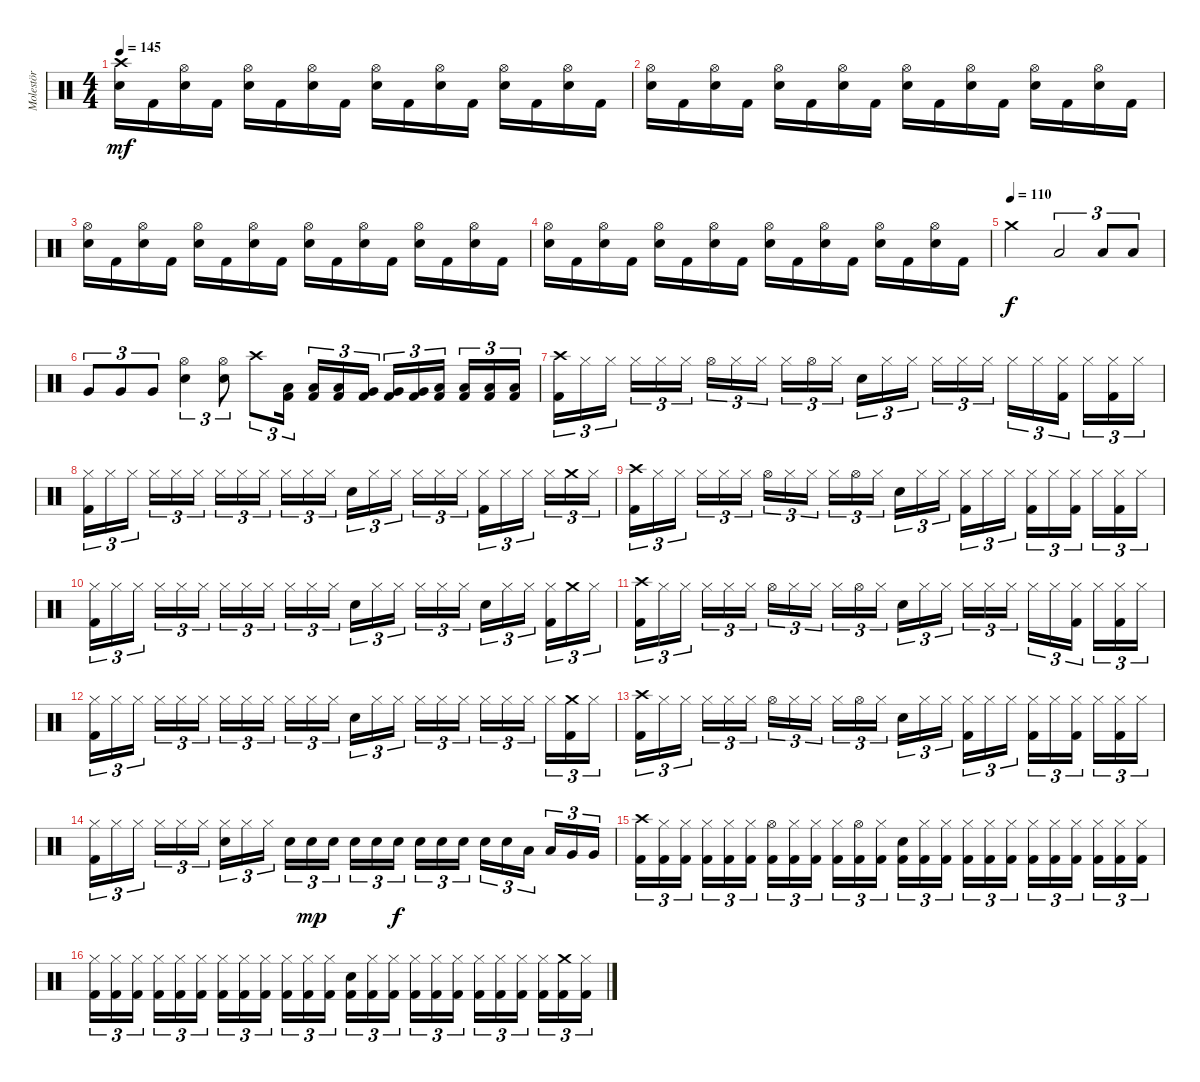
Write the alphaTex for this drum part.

\track ("Molestör" "Molestör") {instrument percussion}
\staff {score}
\articulation defaults
\ts (4 4)
\tempo 145
\clef neutral
\ks c
("Crash high (hit)" "Electric Snare (hit)").16{dy mf} "Kick (hit) 2".16 ("Hi-Hat (open)" "Electric Snare (hit)").16 "Kick (hit) 2".16 ("Hi-Hat (open)" "Electric Snare (hit)").16 "Kick (hit) 2".16 ("Hi-Hat (open)" "Electric Snare (hit)").16 "Kick (hit) 2".16 ("Hi-Hat (open)" "Electric Snare (hit)").16 "Kick (hit) 2".16 ("Hi-Hat (open)" "Electric Snare (hit)").16 "Kick (hit) 2".16 ("Hi-Hat (open)" "Electric Snare (hit)").16 "Kick (hit) 2".16 ("Hi-Hat (open)" "Electric Snare (hit)").16 "Kick (hit) 2".16 |
("Hi-Hat (open)" "Electric Snare (hit)").16 "Kick (hit) 2".16 ("Hi-Hat (open)" "Electric Snare (hit)").16 "Kick (hit) 2".16 ("Hi-Hat (open)" "Electric Snare (hit)").16 "Kick (hit) 2".16 ("Hi-Hat (open)" "Electric Snare (hit)").16 "Kick (hit) 2".16 ("Hi-Hat (open)" "Electric Snare (hit)").16 "Kick (hit) 2".16 ("Hi-Hat (open)" "Electric Snare (hit)").16 "Kick (hit) 2".16 ("Hi-Hat (open)" "Electric Snare (hit)").16 "Kick (hit) 2".16 ("Hi-Hat (open)" "Electric Snare (hit)").16 "Kick (hit) 2".16 |
("Hi-Hat (open)" "Electric Snare (hit)").16 "Kick (hit) 2".16 ("Hi-Hat (open)" "Electric Snare (hit)").16 "Kick (hit) 2".16 ("Hi-Hat (open)" "Electric Snare (hit)").16 "Kick (hit) 2".16 ("Hi-Hat (open)" "Electric Snare (hit)").16 "Kick (hit) 2".16 ("Hi-Hat (open)" "Electric Snare (hit)").16 "Kick (hit) 2".16 ("Hi-Hat (open)" "Electric Snare (hit)").16 "Kick (hit) 2".16 ("Hi-Hat (open)" "Electric Snare (hit)").16 "Kick (hit) 2".16 ("Hi-Hat (open)" "Electric Snare (hit)").16 "Kick (hit) 2".16 |
("Hi-Hat (open)" "Electric Snare (hit)").16 "Kick (hit) 2".16 ("Hi-Hat (open)" "Electric Snare (hit)").16 "Kick (hit) 2".16 ("Hi-Hat (open)" "Electric Snare (hit)").16 "Kick (hit) 2".16 ("Hi-Hat (open)" "Electric Snare (hit)").16 "Kick (hit) 2".16 ("Hi-Hat (open)" "Electric Snare (hit)").16 "Kick (hit) 2".16 ("Hi-Hat (open)" "Electric Snare (hit)").16 "Kick (hit) 2".16 ("Hi-Hat (open)" "Electric Snare (hit)").16 "Kick (hit) 2".16 ("Hi-Hat (open)" "Electric Snare (hit)").16 "Kick (hit) 2".16 |
\tempo (110)
"Crash medium (hit)".2{dy f} "Low Tom (hit)".2{tu (3 2)} "Low Tom (hit)".8{tu (3 2)} "Low Tom (hit)".8{tu (3 2)} |
"Very Low Tom (hit)".8{tu (3 2)} "Very Low Tom (hit)".8{tu (3 2)} "Very Low Tom (hit)".8{tu (3 2)} ("Hi-Hat (open)" "Electric Snare (hit)").4{tu (3 2)} ("Hi-Hat (open)" "Electric Snare (hit)").8{tu (3 2)} "Crash high (hit)".8{tu (3 2)} ("Low Tom (hit)" "Kick (hit) 2").16{tu (3 2) beam splitsecondary} ("Low Tom (hit)" "Kick (hit) 2").16{tu (3 2)} ("Low Tom (hit)" "Kick (hit) 2").16{tu (3 2)} ("Very Low Tom (hit)" "Kick (hit) 2").16{tu (3 2)} ("Very Low Tom (hit)" "Kick (hit) 2").16{tu (3 2)} ("Very Low Tom (hit)" "Kick (hit) 2").16{tu (3 2)} ("Low Floor Tom (hit)" "Kick (hit) 2").16{tu (3 2) beam splitsecondary} ("Low Floor Tom (hit)" "Kick (hit) 2").16{tu (3 2)} ("Low Floor Tom (hit)" "Kick (hit) 2").16{tu (3 2)} ("Low Floor Tom (hit)" "Kick (hit) 2").16{tu (3 2)} |
("Crash high (hit)" "Kick (hit) 2").16{tu (3 2)} "Hi-Hat (closed)".16{tu (3 2)} "Hi-Hat (closed)".16{tu (3 2) beam splitsecondary} "Hi-Hat (closed)".16{tu (3 2)} "Hi-Hat (closed)".16{tu (3 2)} "Hi-Hat (closed)".16{tu (3 2)} "Hi-Hat (open)".16{tu (3 2)} "Hi-Hat (closed)".16{tu (3 2)} "Hi-Hat (closed)".16{tu (3 2) beam splitsecondary} "Hi-Hat (closed)".16{tu (3 2)} "Hi-Hat (open)".16{tu (3 2)} "Hi-Hat (closed)".16{tu (3 2)} "Electric Snare (hit)".16{tu (3 2)} "Hi-Hat (closed)".16{tu (3 2)} "Hi-Hat (closed)".16{tu (3 2) beam splitsecondary} "Hi-Hat (closed)".16{tu (3 2)} "Hi-Hat (closed)".16{tu (3 2)} "Hi-Hat (closed)".16{tu (3 2)} "Hi-Hat (closed)".16{tu (3 2)} "Hi-Hat (closed)".16{tu (3 2)} ("Hi-Hat (closed)" "Kick (hit) 2").16{tu (3 2) beam splitsecondary} "Hi-Hat (closed)".16{tu (3 2)} ("Hi-Hat (closed)" "Kick (hit) 2").16{tu (3 2)} "Hi-Hat (closed)".16{tu (3 2)} |
("Hi-Hat (closed)" "Kick (hit) 2").16{tu (3 2)} "Hi-Hat (closed)".16{tu (3 2)} "Hi-Hat (closed)".16{tu (3 2) beam splitsecondary} "Hi-Hat (closed)".16{tu (3 2)} "Hi-Hat (closed)".16{tu (3 2)} "Hi-Hat (closed)".16{tu (3 2)} "Hi-Hat (closed)".16{tu (3 2)} "Hi-Hat (closed)".16{tu (3 2)} "Hi-Hat (closed)".16{tu (3 2) beam splitsecondary} "Hi-Hat (closed)".16{tu (3 2)} "Hi-Hat (closed)".16{tu (3 2)} "Hi-Hat (closed)".16{tu (3 2)} "Electric Snare (hit)".16{tu (3 2)} "Hi-Hat (closed)".16{tu (3 2)} "Hi-Hat (closed)".16{tu (3 2) beam splitsecondary} "Hi-Hat (closed)".16{tu (3 2)} "Hi-Hat (closed)".16{tu (3 2)} "Hi-Hat (closed)".16{tu (3 2)} ("Hi-Hat (closed)" "Kick (hit) 2").16{tu (3 2)} "Hi-Hat (closed)".16{tu (3 2)} "Hi-Hat (closed)".16{tu (3 2) beam splitsecondary} "Hi-Hat (closed)".16{tu (3 2)} "Crash medium (hit)".16{tu (3 2)} "Hi-Hat (closed)".16{tu (3 2)} |
("Crash high (hit)" "Kick (hit) 2").16{tu (3 2)} "Hi-Hat (closed)".16{tu (3 2)} "Hi-Hat (closed)".16{tu (3 2) beam splitsecondary} "Hi-Hat (closed)".16{tu (3 2)} "Hi-Hat (closed)".16{tu (3 2)} "Hi-Hat (closed)".16{tu (3 2)} "Hi-Hat (open)".16{tu (3 2)} "Hi-Hat (closed)".16{tu (3 2)} "Hi-Hat (closed)".16{tu (3 2) beam splitsecondary} "Hi-Hat (closed)".16{tu (3 2)} "Hi-Hat (open)".16{tu (3 2)} "Hi-Hat (closed)".16{tu (3 2)} "Electric Snare (hit)".16{tu (3 2)} "Hi-Hat (closed)".16{tu (3 2)} "Hi-Hat (closed)".16{tu (3 2) beam splitsecondary} ("Hi-Hat (closed)" "Kick (hit) 2").16{tu (3 2)} "Hi-Hat (closed)".16{tu (3 2)} "Hi-Hat (closed)".16{tu (3 2)} ("Hi-Hat (closed)" "Kick (hit) 2").16{tu (3 2)} "Hi-Hat (closed)".16{tu (3 2)} ("Hi-Hat (closed)" "Kick (hit) 2").16{tu (3 2) beam splitsecondary} "Hi-Hat (closed)".16{tu (3 2)} ("Hi-Hat (closed)" "Kick (hit) 2").16{tu (3 2)} "Hi-Hat (closed)".16{tu (3 2)} |
("Hi-Hat (closed)" "Kick (hit) 2").16{tu (3 2)} "Hi-Hat (closed)".16{tu (3 2)} "Hi-Hat (closed)".16{tu (3 2) beam splitsecondary} "Hi-Hat (closed)".16{tu (3 2)} "Hi-Hat (closed)".16{tu (3 2)} "Hi-Hat (closed)".16{tu (3 2)} "Hi-Hat (closed)".16{tu (3 2)} "Hi-Hat (closed)".16{tu (3 2)} "Hi-Hat (closed)".16{tu (3 2) beam splitsecondary} "Hi-Hat (closed)".16{tu (3 2)} "Hi-Hat (closed)".16{tu (3 2)} "Hi-Hat (closed)".16{tu (3 2)} "Electric Snare (hit)".16{tu (3 2)} "Hi-Hat (closed)".16{tu (3 2)} "Hi-Hat (closed)".16{tu (3 2) beam splitsecondary} "Hi-Hat (closed)".16{tu (3 2)} "Hi-Hat (closed)".16{tu (3 2)} "Hi-Hat (closed)".16{tu (3 2)} "Electric Snare (hit)".16{tu (3 2)} "Hi-Hat (closed)".16{tu (3 2)} "Hi-Hat (closed)".16{tu (3 2) beam splitsecondary} ("Hi-Hat (closed)" "Kick (hit) 2").16{tu (3 2)} "Crash medium (hit)".16{tu (3 2)} "Hi-Hat (closed)".16{tu (3 2)} |
("Crash high (hit)" "Kick (hit) 2").16{tu (3 2)} "Hi-Hat (closed)".16{tu (3 2)} "Hi-Hat (closed)".16{tu (3 2) beam splitsecondary} "Hi-Hat (closed)".16{tu (3 2)} "Hi-Hat (closed)".16{tu (3 2)} "Hi-Hat (closed)".16{tu (3 2)} "Hi-Hat (open)".16{tu (3 2)} "Hi-Hat (closed)".16{tu (3 2)} "Hi-Hat (closed)".16{tu (3 2) beam splitsecondary} "Hi-Hat (closed)".16{tu (3 2)} "Hi-Hat (open)".16{tu (3 2)} "Hi-Hat (closed)".16{tu (3 2)} "Electric Snare (hit)".16{tu (3 2)} "Hi-Hat (closed)".16{tu (3 2)} "Hi-Hat (closed)".16{tu (3 2) beam splitsecondary} "Hi-Hat (closed)".16{tu (3 2)} "Hi-Hat (closed)".16{tu (3 2)} "Hi-Hat (closed)".16{tu (3 2)} "Hi-Hat (closed)".16{tu (3 2)} "Hi-Hat (closed)".16{tu (3 2)} ("Hi-Hat (closed)" "Kick (hit) 2").16{tu (3 2) beam splitsecondary} "Hi-Hat (closed)".16{tu (3 2)} ("Hi-Hat (closed)" "Kick (hit) 2").16{tu (3 2)} "Hi-Hat (closed)".16{tu (3 2)} |
("Hi-Hat (closed)" "Kick (hit) 2").16{tu (3 2)} "Hi-Hat (closed)".16{tu (3 2)} "Hi-Hat (closed)".16{tu (3 2) beam splitsecondary} "Hi-Hat (closed)".16{tu (3 2)} "Hi-Hat (closed)".16{tu (3 2)} "Hi-Hat (closed)".16{tu (3 2)} "Hi-Hat (closed)".16{tu (3 2)} "Hi-Hat (closed)".16{tu (3 2)} "Hi-Hat (closed)".16{tu (3 2) beam splitsecondary} "Hi-Hat (closed)".16{tu (3 2)} "Hi-Hat (closed)".16{tu (3 2)} "Hi-Hat (closed)".16{tu (3 2)} "Electric Snare (hit)".16{tu (3 2)} "Hi-Hat (closed)".16{tu (3 2)} "Hi-Hat (closed)".16{tu (3 2) beam splitsecondary} "Hi-Hat (closed)".16{tu (3 2)} "Hi-Hat (closed)".16{tu (3 2)} "Hi-Hat (closed)".16{tu (3 2)} "Hi-Hat (closed)".16{tu (3 2)} "Hi-Hat (closed)".16{tu (3 2)} "Hi-Hat (closed)".16{tu (3 2) beam splitsecondary} "Hi-Hat (closed)".16{tu (3 2)} ("Crash medium (hit)" "Kick (hit) 2").16{tu (3 2)} "Hi-Hat (closed)".16{tu (3 2)} |
("Crash high (hit)" "Kick (hit) 2").16{tu (3 2)} "Hi-Hat (closed)".16{tu (3 2)} "Hi-Hat (closed)".16{tu (3 2) beam splitsecondary} "Hi-Hat (closed)".16{tu (3 2)} "Hi-Hat (closed)".16{tu (3 2)} "Hi-Hat (closed)".16{tu (3 2)} "Hi-Hat (open)".16{tu (3 2)} "Hi-Hat (closed)".16{tu (3 2)} "Hi-Hat (closed)".16{tu (3 2) beam splitsecondary} "Hi-Hat (closed)".16{tu (3 2)} "Hi-Hat (open)".16{tu (3 2)} "Hi-Hat (closed)".16{tu (3 2)} "Electric Snare (hit)".16{tu (3 2)} "Hi-Hat (closed)".16{tu (3 2)} "Hi-Hat (closed)".16{tu (3 2) beam splitsecondary} ("Hi-Hat (closed)" "Kick (hit) 2").16{tu (3 2)} "Hi-Hat (closed)".16{tu (3 2)} "Hi-Hat (closed)".16{tu (3 2)} ("Hi-Hat (closed)" "Kick (hit) 2").16{tu (3 2)} "Hi-Hat (closed)".16{tu (3 2)} ("Hi-Hat (closed)" "Kick (hit) 2").16{tu (3 2) beam splitsecondary} "Hi-Hat (closed)".16{tu (3 2)} ("Hi-Hat (closed)" "Kick (hit) 2").16{tu (3 2)} "Hi-Hat (closed)".16{tu (3 2)} |
("Hi-Hat (closed)" "Kick (hit) 2").16{tu (3 2)} "Hi-Hat (closed)".16{tu (3 2)} "Hi-Hat (closed)".16{tu (3 2) beam splitsecondary} "Hi-Hat (closed)".16{tu (3 2)} "Hi-Hat (closed)".16{tu (3 2)} "Hi-Hat (closed)".16{tu (3 2)} ("Hi-Hat (closed)" "Electric Snare (hit)").16{tu (3 2)} "Hi-Hat (closed)".16{tu (3 2)} "Hi-Hat (closed)".16{tu (3 2) beam splitsecondary} "Electric Snare (hit)".16{tu (3 2)} "Electric Snare (hit)".16{tu (3 2) dy mp} "Electric Snare (hit)".16{tu (3 2)} "Electric Snare (hit)".16{tu (3 2)} "Electric Snare (hit)".16{tu (3 2)} "Electric Snare (hit)".16{tu (3 2) dy f beam splitsecondary} "Electric Snare (hit)".16{tu (3 2)} "Electric Snare (hit)".16{tu (3 2)} "Electric Snare (hit)".16{tu (3 2)} "Electric Snare (hit)".16{tu (3 2)} "Electric Snare (hit)".16{tu (3 2)} "Low Tom (hit)".16{tu (3 2) beam splitsecondary} "Low Tom (hit)".16{tu (3 2)} "Very Low Tom (hit)".16{tu (3 2)} "Very Low Tom (hit)".16{tu (3 2)} |
("Crash high (hit)" "Kick (hit) 2").16{tu (3 2)} ("Hi-Hat (closed)" "Kick (hit) 2").16{tu (3 2)} ("Hi-Hat (closed)" "Kick (hit) 2").16{tu (3 2) beam splitsecondary} ("Hi-Hat (closed)" "Kick (hit) 2").16{tu (3 2)} ("Hi-Hat (closed)" "Kick (hit) 2").16{tu (3 2)} ("Hi-Hat (closed)" "Kick (hit) 2").16{tu (3 2)} ("Hi-Hat (open)" "Kick (hit) 2").16{tu (3 2)} ("Hi-Hat (closed)" "Kick (hit) 2").16{tu (3 2)} ("Hi-Hat (closed)" "Kick (hit) 2").16{tu (3 2) beam splitsecondary} ("Hi-Hat (closed)" "Kick (hit) 2").16{tu (3 2)} ("Hi-Hat (open)" "Kick (hit) 2").16{tu (3 2)} ("Hi-Hat (closed)" "Kick (hit) 2").16{tu (3 2)} ("Electric Snare (hit)" "Kick (hit) 2").16{tu (3 2)} ("Hi-Hat (closed)" "Kick (hit) 2").16{tu (3 2)} ("Hi-Hat (closed)" "Kick (hit) 2").16{tu (3 2) beam splitsecondary} ("Hi-Hat (closed)" "Kick (hit) 2").16{tu (3 2)} ("Hi-Hat (closed)" "Kick (hit) 2").16{tu (3 2)} ("Hi-Hat (closed)" "Kick (hit) 2").16{tu (3 2)} ("Hi-Hat (closed)" "Kick (hit) 2").16{tu (3 2)} ("Hi-Hat (closed)" "Kick (hit) 2").16{tu (3 2)} ("Hi-Hat (closed)" "Kick (hit) 2").16{tu (3 2) beam splitsecondary} ("Hi-Hat (closed)" "Kick (hit) 2").16{tu (3 2)} ("Hi-Hat (closed)" "Kick (hit) 2").16{tu (3 2)} ("Hi-Hat (closed)" "Kick (hit) 2").16{tu (3 2)} |
("Hi-Hat (closed)" "Kick (hit) 2").16{tu (3 2)} ("Hi-Hat (closed)" "Kick (hit) 2").16{tu (3 2)} ("Hi-Hat (closed)" "Kick (hit) 2").16{tu (3 2) beam splitsecondary} ("Hi-Hat (closed)" "Kick (hit) 2").16{tu (3 2)} ("Hi-Hat (closed)" "Kick (hit) 2").16{tu (3 2)} ("Hi-Hat (closed)" "Kick (hit) 2").16{tu (3 2)} ("Hi-Hat (closed)" "Kick (hit) 2").16{tu (3 2)} ("Hi-Hat (closed)" "Kick (hit) 2").16{tu (3 2)} ("Hi-Hat (closed)" "Kick (hit) 2").16{tu (3 2) beam splitsecondary} ("Hi-Hat (closed)" "Kick (hit) 2").16{tu (3 2)} ("Hi-Hat (closed)" "Kick (hit) 2").16{tu (3 2)} ("Hi-Hat (closed)" "Kick (hit) 2").16{tu (3 2)} ("Electric Snare (hit)" "Kick (hit) 2").16{tu (3 2)} ("Hi-Hat (closed)" "Kick (hit) 2").16{tu (3 2)} ("Hi-Hat (closed)" "Kick (hit) 2").16{tu (3 2) beam splitsecondary} ("Hi-Hat (closed)" "Kick (hit) 2").16{tu (3 2)} ("Hi-Hat (closed)" "Kick (hit) 2").16{tu (3 2)} ("Hi-Hat (closed)" "Kick (hit) 2").16{tu (3 2)} ("Hi-Hat (closed)" "Kick (hit) 2").16{tu (3 2)} ("Hi-Hat (closed)" "Kick (hit) 2").16{tu (3 2)} ("Hi-Hat (closed)" "Kick (hit) 2").16{tu (3 2) beam splitsecondary} ("Hi-Hat (closed)" "Kick (hit) 2").16{tu (3 2)} ("Crash medium (hit)" "Kick (hit) 2").16{tu (3 2)} ("Hi-Hat (closed)" "Kick (hit) 2").16{tu (3 2)}
